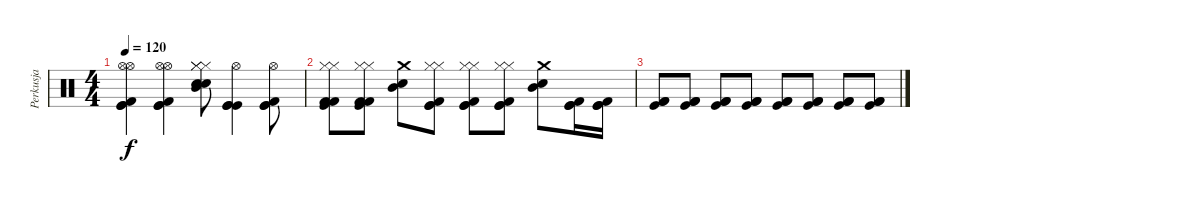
\track ("Perkusja" "Perkusja") {instrument percussion}
\staff {score}
\articulation defaults
\ts (4 4)
\tempo 120
\clef neutral
\ks c
("Hi-Hat (open)" "Hi-Hat (open)" "Kick (hit)" "Kick (hit) 2" "Kick (hit)").4{dy f} ("Hi-Hat (open)" "Hi-Hat (open)" "Kick (hit)" "Kick (hit) 2" "Kick (hit)").4 ("Hi-Hat (closed)" "Hi-Hat (closed)" "Hi-Hat (closed)" "Snare (hit) 2" "Snare (hit) 2" "Mid Tom (hit)").8 ("Hi-Hat (open)" "Kick (hit)" "Kick (hit)" "Kick (hit)").4 ("Hi-Hat (open)" "Kick (hit)" "Kick (hit)" "Kick (hit) 2").8 |
("Hi-Hat (closed)" "Hi-Hat (closed)" "Kick (hit)" "Kick (hit) 2" "Kick (hit) 2").8 ("Hi-Hat (closed)" "Hi-Hat (closed)" "Kick (hit)" "Kick (hit) 2" "Kick (hit) 2").8 ("Crash medium (hit)" "Mid Tom (hit)" "Snare (hit) 2").8 ("Hi-Hat (closed)" "Hi-Hat (closed)" "Kick (hit)" "Kick (hit) 2" "Kick (hit)").8 ("Hi-Hat (closed)" "Hi-Hat (closed)" "Kick (hit)" "Kick (hit) 2" "Kick (hit)").8 ("Hi-Hat (closed)" "Hi-Hat (closed)" "Kick (hit)" "Kick (hit) 2" "Kick (hit)").8 ("Crash medium (hit)" "Mid Tom (hit)" "Snare (hit) 2").8 ("Kick (hit)" "Kick (hit)" "Kick (hit) 2").16 ("Kick (hit)" "Kick (hit)" "Kick (hit) 2").16 |
("Kick (hit) 2" "Kick (hit)" "Kick (hit) 2").8 ("Kick (hit) 2" "Kick (hit)" "Kick (hit) 2").8 ("Kick (hit) 2" "Kick (hit)" "Kick (hit) 2").8 ("Kick (hit) 2" "Kick (hit)" "Kick (hit) 2").8 ("Kick (hit) 2" "Kick (hit)" "Kick (hit) 2").8 ("Kick (hit) 2" "Kick (hit)" "Kick (hit) 2").8 ("Kick (hit) 2" "Kick (hit)" "Kick (hit) 2").8 ("Kick (hit) 2" "Kick (hit)" "Kick (hit) 2").8
